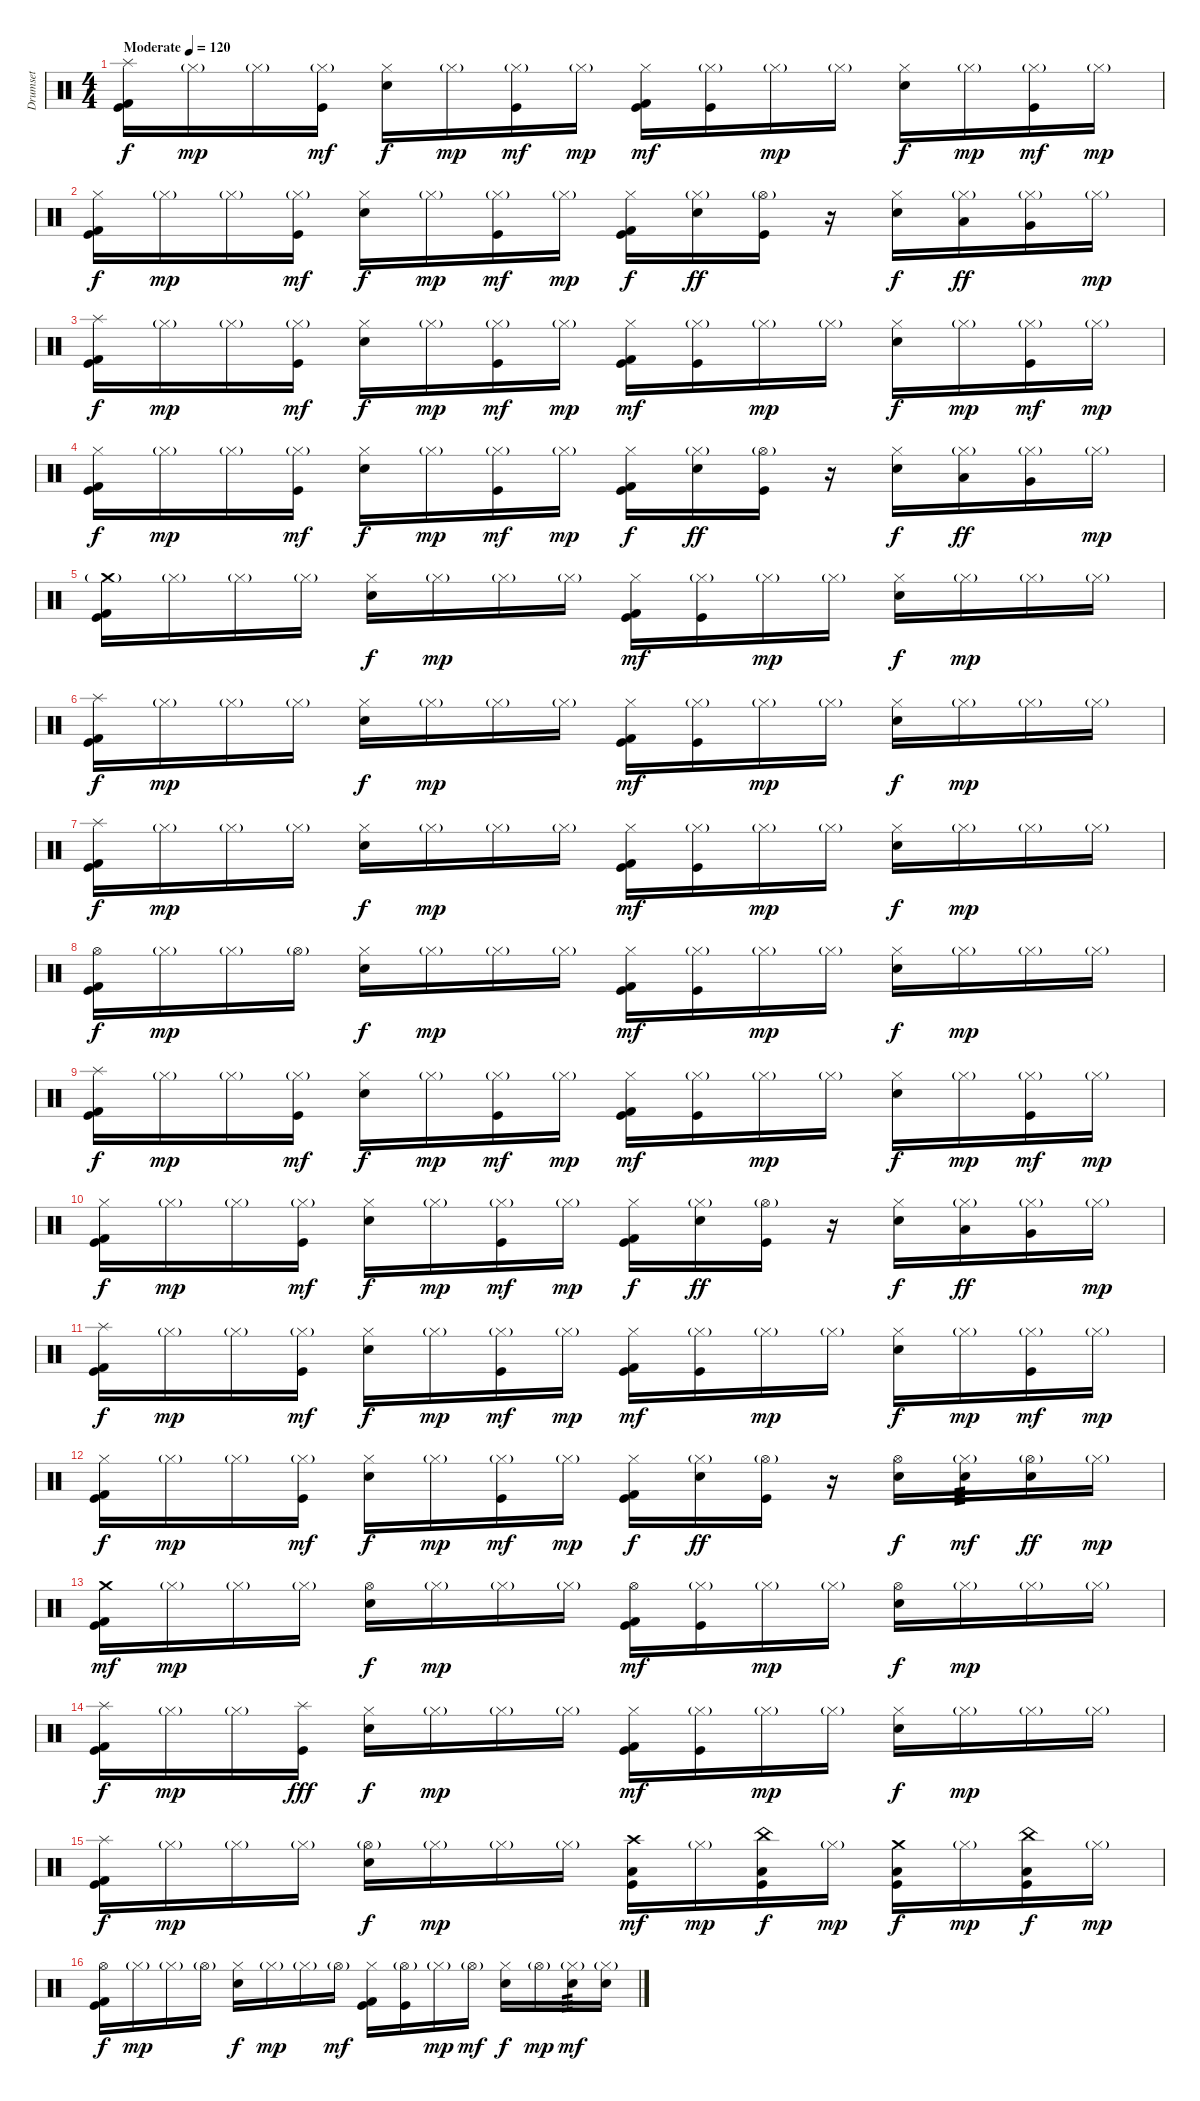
\track ("Drumset" "Drumset") {instrument percussion}
\staff {score}
\articulation defaults
\ts (4 4)
\tempo (120 "Moderate")
\clef neutral
\ks c
("Splash (hit)" "Kick (hit) 2" "Kick (hit)").16{dy f} "Hi-Hat (closed)"{g}.16{dy mp} "Hi-Hat (closed)"{g}.16 ("Hi-Hat (closed)"{g} "Kick (hit)").16{dy mf} ("Hi-Hat (closed)" "Electric Snare (hit)").16{dy f} "Hi-Hat (closed)"{g}.16{dy mp} ("Hi-Hat (closed)"{g} "Kick (hit)").16{dy mf} "Hi-Hat (closed)"{g}.16{dy mp} ("Hi-Hat (closed)" "Kick (hit) 2" "Kick (hit)").16{dy mf} ("Hi-Hat (closed)"{g} "Kick (hit)").16 "Hi-Hat (closed)"{g}.16{dy mp} "Hi-Hat (closed)"{g}.16 ("Hi-Hat (closed)" "Electric Snare (hit)").16{dy f} "Hi-Hat (closed)"{g}.16{dy mp} ("Hi-Hat (closed)"{g} "Kick (hit)").16{dy mf} "Hi-Hat (closed)"{g}.16{dy mp} |
("Hi-Hat (closed)" "Kick (hit) 2" "Kick (hit)").16{dy f} "Hi-Hat (closed)"{g}.16{dy mp} "Hi-Hat (closed)"{g}.16 ("Hi-Hat (closed)"{g} "Kick (hit)").16{dy mf} ("Hi-Hat (closed)" "Electric Snare (hit)").16{dy f} "Hi-Hat (closed)"{g}.16{dy mp} ("Hi-Hat (closed)"{g} "Kick (hit)").16{dy mf} "Hi-Hat (closed)"{g}.16{dy mp} ("Hi-Hat (closed)" "Kick (hit) 2" "Kick (hit)").16{dy f} ("Hi-Hat (closed)"{g} "Electric Snare (hit)").16{dy ff} ("Hi-Hat (open)"{g} "Kick (hit)").16 r.16 ("Hi-Hat (closed)" "Electric Snare (hit)").16{dy f} ("Hi-Hat (closed)"{g} "Low Tom (hit)").16{dy ff} ("Hi-Hat (closed)"{g} "Very Low Tom (hit)").16 "Hi-Hat (closed)"{g}.16{dy mp} |
("Splash (hit)" "Kick (hit) 2" "Kick (hit)").16{dy f} "Hi-Hat (closed)"{g}.16{dy mp} "Hi-Hat (closed)"{g}.16 ("Hi-Hat (closed)"{g} "Kick (hit)").16{dy mf} ("Hi-Hat (closed)" "Electric Snare (hit)").16{dy f} "Hi-Hat (closed)"{g}.16{dy mp} ("Hi-Hat (closed)"{g} "Kick (hit)").16{dy mf} "Hi-Hat (closed)"{g}.16{dy mp} ("Hi-Hat (closed)" "Kick (hit) 2" "Kick (hit)").16{dy mf} ("Hi-Hat (closed)"{g} "Kick (hit)").16 "Hi-Hat (closed)"{g}.16{dy mp} "Hi-Hat (closed)"{g}.16 ("Hi-Hat (closed)" "Electric Snare (hit)").16{dy f} "Hi-Hat (closed)"{g}.16{dy mp} ("Hi-Hat (closed)"{g} "Kick (hit)").16{dy mf} "Hi-Hat (closed)"{g}.16{dy mp} |
("Hi-Hat (closed)" "Kick (hit) 2" "Kick (hit)").16{dy f} "Hi-Hat (closed)"{g}.16{dy mp} "Hi-Hat (closed)"{g}.16 ("Hi-Hat (closed)"{g} "Kick (hit)").16{dy mf} ("Hi-Hat (closed)" "Electric Snare (hit)").16{dy f} "Hi-Hat (closed)"{g}.16{dy mp} ("Hi-Hat (closed)"{g} "Kick (hit)").16{dy mf} "Hi-Hat (closed)"{g}.16{dy mp} ("Hi-Hat (closed)" "Kick (hit) 2" "Kick (hit)").16{dy f} ("Hi-Hat (closed)"{g} "Electric Snare (hit)").16{dy ff} ("Hi-Hat (open)"{g} "Kick (hit)").16 r.16 ("Hi-Hat (closed)" "Electric Snare (hit)").16{dy f} ("Hi-Hat (closed)"{g} "Low Tom (hit)").16{dy ff} ("Hi-Hat (closed)"{g} "Very Low Tom (hit)").16 "Hi-Hat (closed)"{g}.16{dy mp} |
("Crash medium (hit)"{g} "Kick (hit) 2" "Kick (hit)").16 "Hi-Hat (closed)"{g}.16 "Hi-Hat (closed)"{g}.16 "Hi-Hat (closed)"{g}.16 ("Hi-Hat (closed)" "Electric Snare (hit)").16{dy f} "Hi-Hat (closed)"{g}.16{dy mp} "Hi-Hat (closed)"{g}.16 "Hi-Hat (closed)"{g}.16 ("Hi-Hat (closed)" "Kick (hit) 2" "Kick (hit)").16{dy mf} ("Hi-Hat (closed)"{g} "Kick (hit)").16 "Hi-Hat (closed)"{g}.16{dy mp} "Hi-Hat (closed)"{g}.16 ("Hi-Hat (closed)" "Electric Snare (hit)").16{dy f} "Hi-Hat (closed)"{g}.16{dy mp} "Hi-Hat (closed)"{g}.16 "Hi-Hat (closed)"{g}.16 |
("Splash (hit)" "Kick (hit) 2" "Kick (hit)").16{dy f} "Hi-Hat (closed)"{g}.16{dy mp} "Hi-Hat (closed)"{g}.16 "Hi-Hat (closed)"{g}.16 ("Hi-Hat (closed)" "Electric Snare (hit)").16{dy f} "Hi-Hat (closed)"{g}.16{dy mp} "Hi-Hat (closed)"{g}.16 "Hi-Hat (closed)"{g}.16 ("Hi-Hat (closed)" "Kick (hit) 2" "Kick (hit)").16{dy mf} ("Hi-Hat (closed)"{g} "Kick (hit)").16 "Hi-Hat (closed)"{g}.16{dy mp} "Hi-Hat (closed)"{g}.16 ("Hi-Hat (closed)" "Electric Snare (hit)").16{dy f} "Hi-Hat (closed)"{g}.16{dy mp} "Hi-Hat (closed)"{g}.16 "Hi-Hat (closed)"{g}.16 |
("Splash (hit)" "Kick (hit) 2" "Kick (hit)").16{dy f} "Hi-Hat (closed)"{g}.16{dy mp} "Hi-Hat (closed)"{g}.16 "Hi-Hat (closed)"{g}.16 ("Hi-Hat (closed)" "Electric Snare (hit)").16{dy f} "Hi-Hat (closed)"{g}.16{dy mp} "Hi-Hat (closed)"{g}.16 "Hi-Hat (closed)"{g}.16 ("Hi-Hat (closed)" "Kick (hit) 2" "Kick (hit)").16{dy mf} ("Hi-Hat (closed)"{g} "Kick (hit)").16 "Hi-Hat (closed)"{g}.16{dy mp} "Hi-Hat (closed)"{g}.16 ("Hi-Hat (closed)" "Electric Snare (hit)").16{dy f} "Hi-Hat (closed)"{g}.16{dy mp} "Hi-Hat (closed)"{g}.16 "Hi-Hat (closed)"{g}.16 |
("Hi-Hat (open)" "Kick (hit) 2" "Kick (hit)").16{dy f} "Hi-Hat (closed)"{g}.16{dy mp} "Hi-Hat (closed)"{g}.16 "Hi-Hat (open)"{g}.16 ("Hi-Hat (closed)" "Electric Snare (hit)").16{dy f} "Hi-Hat (closed)"{g}.16{dy mp} "Hi-Hat (closed)"{g}.16 "Hi-Hat (closed)"{g}.16 ("Hi-Hat (closed)" "Kick (hit) 2" "Kick (hit)").16{dy mf} ("Hi-Hat (closed)"{g} "Kick (hit)").16 "Hi-Hat (closed)"{g}.16{dy mp} "Hi-Hat (closed)"{g}.16 ("Hi-Hat (closed)" "Electric Snare (hit)").16{dy f} "Hi-Hat (closed)"{g}.16{dy mp} "Hi-Hat (closed)"{g}.16 "Hi-Hat (closed)"{g}.16 |
("Splash (hit)" "Kick (hit) 2" "Kick (hit)").16{dy f} "Hi-Hat (closed)"{g}.16{dy mp} "Hi-Hat (closed)"{g}.16 ("Hi-Hat (closed)"{g} "Kick (hit)").16{dy mf} ("Hi-Hat (closed)" "Electric Snare (hit)").16{dy f} "Hi-Hat (closed)"{g}.16{dy mp} ("Hi-Hat (closed)"{g} "Kick (hit)").16{dy mf} "Hi-Hat (closed)"{g}.16{dy mp} ("Hi-Hat (closed)" "Kick (hit) 2" "Kick (hit)").16{dy mf} ("Hi-Hat (closed)"{g} "Kick (hit)").16 "Hi-Hat (closed)"{g}.16{dy mp} "Hi-Hat (closed)"{g}.16 ("Hi-Hat (closed)" "Electric Snare (hit)").16{dy f} "Hi-Hat (closed)"{g}.16{dy mp} ("Hi-Hat (closed)"{g} "Kick (hit)").16{dy mf} "Hi-Hat (closed)"{g}.16{dy mp} |
("Hi-Hat (closed)" "Kick (hit) 2" "Kick (hit)").16{dy f} "Hi-Hat (closed)"{g}.16{dy mp} "Hi-Hat (closed)"{g}.16 ("Hi-Hat (closed)"{g} "Kick (hit)").16{dy mf} ("Hi-Hat (closed)" "Electric Snare (hit)").16{dy f} "Hi-Hat (closed)"{g}.16{dy mp} ("Hi-Hat (closed)"{g} "Kick (hit)").16{dy mf} "Hi-Hat (closed)"{g}.16{dy mp} ("Hi-Hat (closed)" "Kick (hit) 2" "Kick (hit)").16{dy f} ("Hi-Hat (closed)"{g} "Electric Snare (hit)").16{dy ff} ("Hi-Hat (open)"{g} "Kick (hit)").16 r.16 ("Hi-Hat (closed)" "Electric Snare (hit)").16{dy f} ("Hi-Hat (closed)"{g} "Low Tom (hit)").16{dy ff} ("Hi-Hat (closed)"{g} "Very Low Tom (hit)").16 "Hi-Hat (closed)"{g}.16{dy mp} |
("Splash (hit)" "Kick (hit) 2" "Kick (hit)").16{dy f} "Hi-Hat (closed)"{g}.16{dy mp} "Hi-Hat (closed)"{g}.16 ("Hi-Hat (closed)"{g} "Kick (hit)").16{dy mf} ("Hi-Hat (closed)" "Electric Snare (hit)").16{dy f} "Hi-Hat (closed)"{g}.16{dy mp} ("Hi-Hat (closed)"{g} "Kick (hit)").16{dy mf} "Hi-Hat (closed)"{g}.16{dy mp} ("Hi-Hat (closed)" "Kick (hit) 2" "Kick (hit)").16{dy mf} ("Hi-Hat (closed)"{g} "Kick (hit)").16 "Hi-Hat (closed)"{g}.16{dy mp} "Hi-Hat (closed)"{g}.16 ("Hi-Hat (closed)" "Electric Snare (hit)").16{dy f} "Hi-Hat (closed)"{g}.16{dy mp} ("Hi-Hat (closed)"{g} "Kick (hit)").16{dy mf} "Hi-Hat (closed)"{g}.16{dy mp} |
("Hi-Hat (closed)" "Kick (hit) 2" "Kick (hit)").16{dy f} "Hi-Hat (closed)"{g}.16{dy mp} "Hi-Hat (closed)"{g}.16 ("Hi-Hat (closed)"{g} "Kick (hit)").16{dy mf} ("Hi-Hat (closed)" "Electric Snare (hit)").16{dy f} "Hi-Hat (closed)"{g}.16{dy mp} ("Hi-Hat (closed)"{g} "Kick (hit)").16{dy mf} "Hi-Hat (closed)"{g}.16{dy mp} ("Hi-Hat (closed)" "Kick (hit) 2" "Kick (hit)").16{dy f} ("Hi-Hat (closed)"{g} "Electric Snare (hit)").16{dy ff} ("Hi-Hat (open)"{g} "Kick (hit)").16 r.16 ("Hi-Hat (open)" "Electric Snare (hit)").16{dy f} ("Hi-Hat (closed)"{g} "Electric Snare (hit)").16{tp 3 dy mf} ("Hi-Hat (open)"{g} "Electric Snare (hit)").16{dy ff} "Hi-Hat (closed)"{g}.16{dy mp} |
("Crash medium (hit)" "Kick (hit) 2" "Kick (hit)").16{dy mf} "Hi-Hat (closed)"{g}.16{dy mp} "Hi-Hat (closed)"{g}.16 "Hi-Hat (closed)"{g}.16 ("Hi-Hat (open)" "Electric Snare (hit)").16{dy f} "Hi-Hat (closed)"{g}.16{dy mp} "Hi-Hat (closed)"{g}.16 "Hi-Hat (closed)"{g}.16 ("Hi-Hat (open)" "Kick (hit) 2" "Kick (hit)").16{dy mf} ("Hi-Hat (closed)"{g} "Kick (hit)").16 "Hi-Hat (closed)"{g}.16{dy mp} "Hi-Hat (closed)"{g}.16 ("Hi-Hat (open)" "Electric Snare (hit)").16{dy f} "Hi-Hat (closed)"{g}.16{dy mp} "Hi-Hat (closed)"{g}.16 "Hi-Hat (closed)"{g}.16 |
("Splash (hit)" "Kick (hit) 2" "Kick (hit)").16{dy f} "Hi-Hat (closed)"{g}.16{dy mp} "Hi-Hat (closed)"{g}.16 ("Splash (hit)" "Kick (hit)").16{dy fff} ("Hi-Hat (closed)" "Electric Snare (hit)").16{dy f} "Hi-Hat (closed)"{g}.16{dy mp} "Hi-Hat (closed)"{g}.16 "Hi-Hat (closed)"{g}.16 ("Hi-Hat (closed)" "Kick (hit) 2" "Kick (hit)").16{dy mf} ("Hi-Hat (closed)"{g} "Kick (hit)").16 "Hi-Hat (closed)"{g}.16{dy mp} "Hi-Hat (closed)"{g}.16 ("Hi-Hat (closed)" "Electric Snare (hit)").16{dy f} "Hi-Hat (closed)"{g}.16{dy mp} "Hi-Hat (closed)"{g}.16 "Hi-Hat (closed)"{g}.16 |
("Splash (hit)" "Kick (hit) 2" "Kick (hit)").16{dy f} "Hi-Hat (closed)"{g}.16{dy mp} "Hi-Hat (closed)"{g}.16 "Hi-Hat (closed)"{g}.16 ("Hi-Hat (open)"{g} "Electric Snare (hit)").16{dy f} "Hi-Hat (closed)"{g}.16{dy mp} "Hi-Hat (closed)"{g}.16 "Hi-Hat (closed)"{g}.16 ("Crash high (hit)" "Low Floor Tom (hit)" "Kick (hit)").16{dy mf} "Hi-Hat (closed)"{g}.16{dy mp} ("China (hit)" "Low Floor Tom (hit)" "Kick (hit)").16{dy f} "Hi-Hat (closed)"{g}.16{dy mp} ("Crash medium (hit)" "Low Floor Tom (hit)" "Kick (hit)").16{dy f} "Hi-Hat (closed)"{g}.16{dy mp} ("China (hit)" "Low Floor Tom (hit)" "Kick (hit)").16{dy f} "Hi-Hat (closed)"{g}.16{dy mp} |
("Hi-Hat (open)" "Kick (hit) 2" "Kick (hit)").16{dy f} "Hi-Hat (closed)"{g}.16{dy mp} "Hi-Hat (closed)"{g}.16 "Hi-Hat (open)"{g}.16 ("Hi-Hat (closed)" "Electric Snare (hit)").16{dy f} "Hi-Hat (closed)"{g}.16{dy mp} "Hi-Hat (closed)"{g}.16 "Hi-Hat (open)"{g}.16{dy mf} ("Hi-Hat (closed)" "Kick (hit) 2" "Kick (hit)").16 ("Hi-Hat (open)"{g} "Kick (hit)").16 "Hi-Hat (closed)"{g}.16{dy mp} "Hi-Hat (open)"{g}.16{dy mf} ("Hi-Hat (closed)" "Electric Snare (hit)").16{dy f} "Hi-Hat (open)"{g}.16{dy mp} ("Hi-Hat (closed)"{g} "Electric Snare (hit)").16{tp 3 dy mf} ("Hi-Hat (closed)"{g} "Electric Snare (hit)").16
